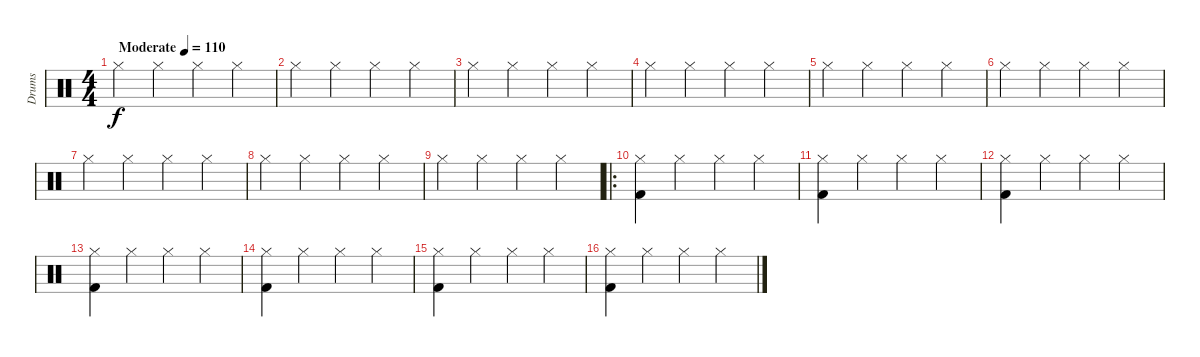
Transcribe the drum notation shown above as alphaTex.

\track ("Drums" "Drums") {instrument percussion}
\staff {score}
\articulation defaults
\ts (4 4)
\tempo (110 "Moderate")
\clef neutral
\ks c "Hi-Hat (closed)".4{dy f} "Hi-Hat (closed)".4 "Hi-Hat (closed)".4 "Hi-Hat (closed)".4
|
"Hi-Hat (closed)".4 "Hi-Hat (closed)".4 "Hi-Hat (closed)".4 "Hi-Hat (closed)".4 |
"Hi-Hat (closed)".4 "Hi-Hat (closed)".4 "Hi-Hat (closed)".4 "Hi-Hat (closed)".4 |
"Hi-Hat (closed)".4 "Hi-Hat (closed)".4 "Hi-Hat (closed)".4 "Hi-Hat (closed)".4 |
"Hi-Hat (closed)".4 "Hi-Hat (closed)".4 "Hi-Hat (closed)".4 "Hi-Hat (closed)".4 |
"Hi-Hat (closed)".4 "Hi-Hat (closed)".4 "Hi-Hat (closed)".4 "Hi-Hat (closed)".4 |
"Hi-Hat (closed)".4 "Hi-Hat (closed)".4 "Hi-Hat (closed)".4 "Hi-Hat (closed)".4 |
"Hi-Hat (closed)".4 "Hi-Hat (closed)".4 "Hi-Hat (closed)".4 "Hi-Hat (closed)".4 |
"Hi-Hat (closed)".4 "Hi-Hat (closed)".4 "Hi-Hat (closed)".4 "Hi-Hat (closed)".4 |
\ro
("Hi-Hat (closed)" "Kick (hit) 2").4 "Hi-Hat (closed)".4 "Hi-Hat (closed)".4 "Hi-Hat (closed)".4 |
("Hi-Hat (closed)" "Kick (hit) 2").4 "Hi-Hat (closed)".4 "Hi-Hat (closed)".4 "Hi-Hat (closed)".4 |
("Hi-Hat (closed)" "Kick (hit) 2").4 "Hi-Hat (closed)".4 "Hi-Hat (closed)".4 "Hi-Hat (closed)".4 |
("Hi-Hat (closed)" "Kick (hit) 2").4 "Hi-Hat (closed)".4 "Hi-Hat (closed)".4 "Hi-Hat (closed)".4 |
("Hi-Hat (closed)" "Kick (hit) 2").4 "Hi-Hat (closed)".4 "Hi-Hat (closed)".4 "Hi-Hat (closed)".4 |
("Hi-Hat (closed)" "Kick (hit) 2").4 "Hi-Hat (closed)".4 "Hi-Hat (closed)".4 "Hi-Hat (closed)".4 |
("Hi-Hat (closed)" "Kick (hit) 2").4 "Hi-Hat (closed)".4 "Hi-Hat (closed)".4 "Hi-Hat (closed)".4
